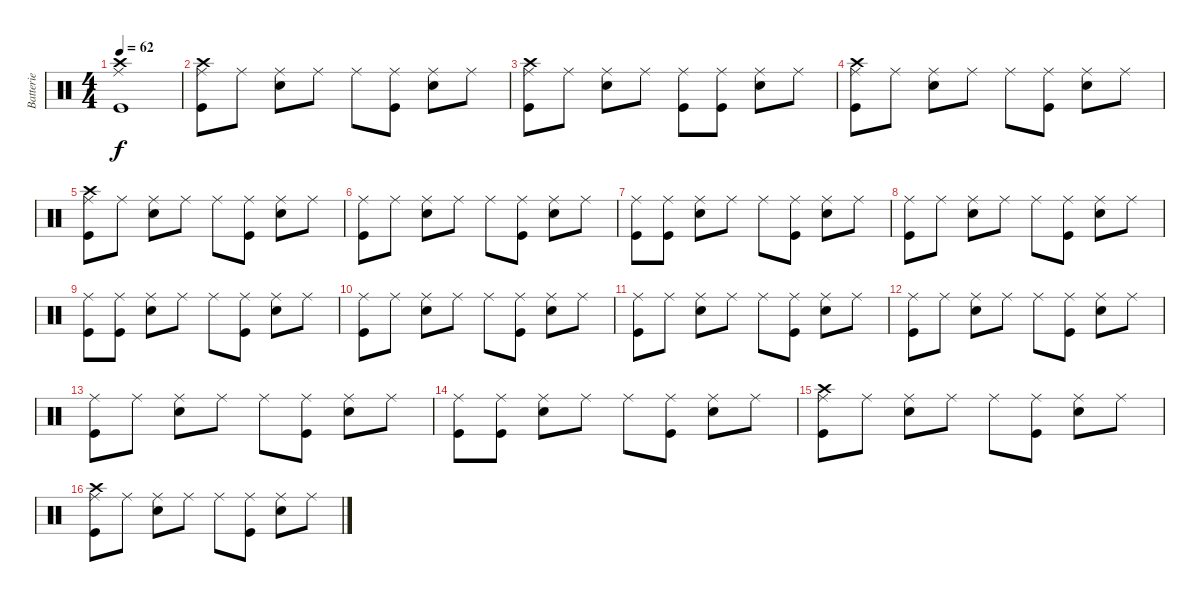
\track ("Batterie" "Batterie") {instrument percussion}
\staff {score}
\articulation defaults
\ts (4 4)
\tempo 62
\clef neutral
\ks c
("Ride (middle)" "Crash high (hit)" "Kick (hit)").1{dy f} |
("Ride (middle)" "Crash high (hit)" "Kick (hit)").8 "Ride (middle)".8 ("Ride (middle)" "Snare (hit) 2").8 "Ride (middle)".8 "Ride (middle)".8 ("Ride (middle)" "Kick (hit)").8 ("Ride (middle)" "Snare (hit) 2").8 "Ride (middle)".8 |
("Ride (middle)" "Crash high (hit)" "Kick (hit)").8 "Ride (middle)".8 ("Ride (middle)" "Snare (hit) 2").8 "Ride (middle)".8 ("Ride (middle)" "Kick (hit)").8 ("Ride (middle)" "Kick (hit)").8 ("Ride (middle)" "Snare (hit) 2").8 "Ride (middle)".8 |
("Ride (middle)" "Crash high (hit)" "Kick (hit)").8 "Ride (middle)".8 ("Ride (middle)" "Snare (hit) 2").8 "Ride (middle)".8 "Ride (middle)".8 ("Ride (middle)" "Kick (hit)").8 ("Ride (middle)" "Snare (hit) 2").8 "Ride (middle)".8 |
("Ride (middle)" "Crash high (hit)" "Kick (hit)").8 "Ride (middle)".8 ("Ride (middle)" "Snare (hit) 2").8 "Ride (middle)".8 "Ride (middle)".8 ("Ride (middle)" "Kick (hit)").8 ("Ride (middle)" "Snare (hit) 2").8 "Ride (middle)".8 |
\section ("" "")
("Ride (middle)" "Kick (hit)").8 "Ride (middle)".8 ("Ride (middle)" "Snare (hit) 2").8 "Ride (middle)".8 "Ride (middle)".8 ("Ride (middle)" "Kick (hit)").8 ("Ride (middle)" "Snare (hit) 2").8 "Ride (middle)".8 |
("Ride (middle)" "Kick (hit)").8 ("Ride (middle)" "Kick (hit)").8 ("Ride (middle)" "Snare (hit) 2").8 "Ride (middle)".8 "Ride (middle)".8 ("Ride (middle)" "Kick (hit)").8 ("Ride (middle)" "Snare (hit) 2").8 "Ride (middle)".8 |
("Ride (middle)" "Kick (hit)").8 "Ride (middle)".8 ("Ride (middle)" "Snare (hit) 2").8 "Ride (middle)".8 "Ride (middle)".8 ("Ride (middle)" "Kick (hit)").8 ("Ride (middle)" "Snare (hit) 2").8 "Ride (middle)".8 |
("Ride (middle)" "Kick (hit)").8 ("Ride (middle)" "Kick (hit)").8 ("Ride (middle)" "Snare (hit) 2").8 "Ride (middle)".8 "Ride (middle)".8 ("Ride (middle)" "Kick (hit)").8 ("Ride (middle)" "Snare (hit) 2").8 "Ride (middle)".8 |
("Ride (middle)" "Kick (hit)").8 "Ride (middle)".8 ("Ride (middle)" "Snare (hit) 2").8 "Ride (middle)".8 "Ride (middle)".8 ("Ride (middle)" "Kick (hit)").8 ("Ride (middle)" "Snare (hit) 2").8 "Ride (middle)".8 |
("Ride (middle)" "Kick (hit)").8 "Ride (middle)".8 ("Ride (middle)" "Snare (hit) 2").8 "Ride (middle)".8 "Ride (middle)".8 ("Ride (middle)" "Kick (hit)").8 ("Ride (middle)" "Snare (hit) 2").8 "Ride (middle)".8 |
("Ride (middle)" "Kick (hit)").8 "Ride (middle)".8 ("Ride (middle)" "Snare (hit) 2").8 "Ride (middle)".8 "Ride (middle)".8 ("Ride (middle)" "Kick (hit)").8 ("Ride (middle)" "Snare (hit) 2").8 "Ride (middle)".8 |
("Ride (middle)" "Kick (hit)").8 "Ride (middle)".8 ("Ride (middle)" "Snare (hit) 2").8 "Ride (middle)".8 "Ride (middle)".8 ("Ride (middle)" "Kick (hit)").8 ("Ride (middle)" "Snare (hit) 2").8 "Ride (middle)".8 |
\section ("" "")
("Ride (middle)" "Kick (hit)").8 ("Ride (middle)" "Kick (hit)").8 ("Ride (middle)" "Snare (hit) 2").8 "Ride (middle)".8 "Ride (middle)".8 ("Ride (middle)" "Kick (hit)").8 ("Ride (middle)" "Snare (hit) 2").8 "Ride (middle)".8 |
("Ride (middle)" "Crash high (hit)" "Kick (hit)").8 "Ride (middle)".8 ("Ride (middle)" "Snare (hit) 2").8 "Ride (middle)".8 "Ride (middle)".8 ("Ride (middle)" "Kick (hit)").8 ("Ride (middle)" "Snare (hit) 2").8 "Ride (middle)".8 |
("Ride (middle)" "Crash high (hit)" "Kick (hit)").8 "Ride (middle)".8 ("Ride (middle)" "Snare (hit) 2").8 "Ride (middle)".8 "Ride (middle)".8 ("Ride (middle)" "Kick (hit)").8 ("Ride (middle)" "Snare (hit) 2").8 "Ride (middle)".8
